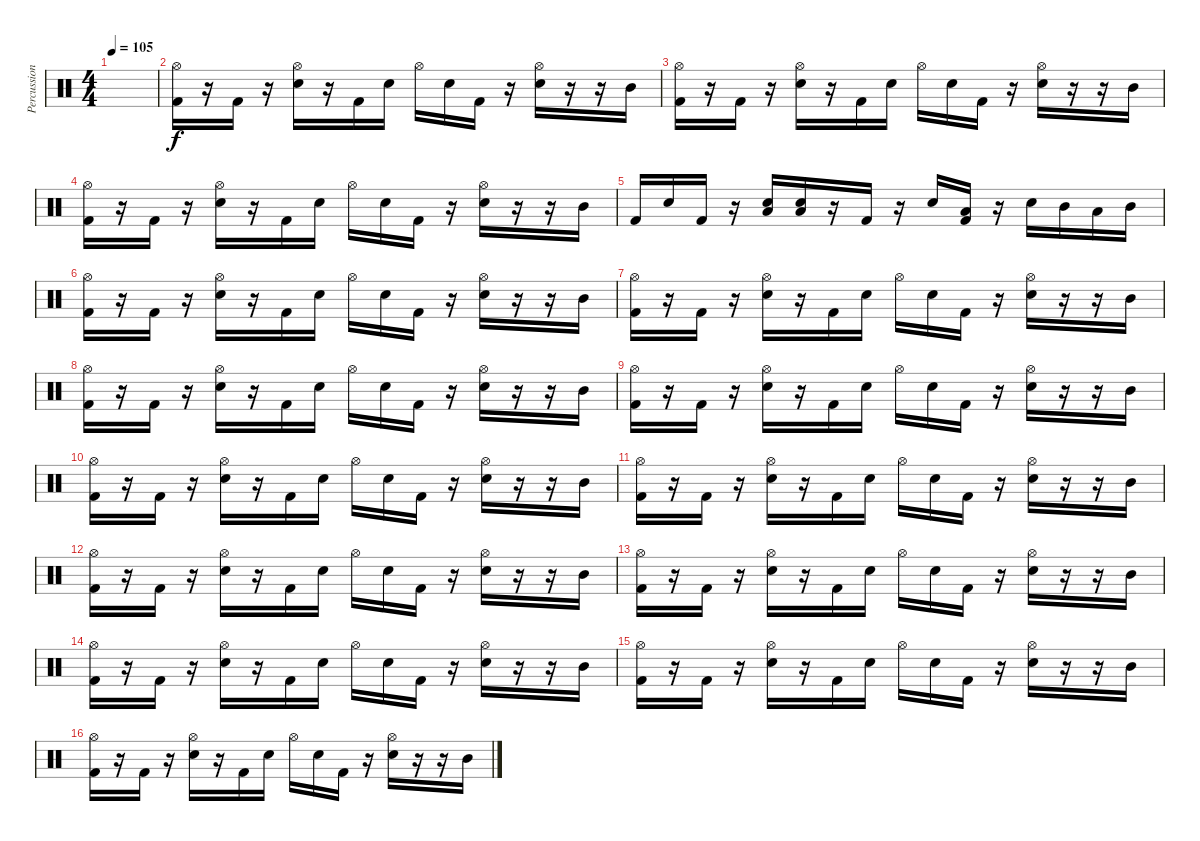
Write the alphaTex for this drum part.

\track ("Percussion" "Percussion") {instrument percussion}
\staff {score}
\articulation defaults
\ts (4 4)
\tempo 105
\clef neutral
\ks c
|
("Hi-Hat (open)" "Kick (hit) 2").16 r.16 "Kick (hit) 2".16 r.16 ("Hi-Hat (open)" "Snare (hit) 2").16 r.16 "Kick (hit) 2".16 "Snare (hit) 2".16 "Hi-Hat (open)".16 "Snare (hit) 2".16 "Kick (hit) 2".16 r.16 ("Hi-Hat (open)" "Snare (hit) 2").16 r.16 r.16 "Mid Tom (hit)".16 |
("Hi-Hat (open)" "Kick (hit) 2").16 r.16 "Kick (hit) 2".16 r.16 ("Hi-Hat (open)" "Snare (hit) 2").16 r.16 "Kick (hit) 2".16 "Snare (hit) 2".16 "Hi-Hat (open)".16 "Snare (hit) 2".16 "Kick (hit) 2".16 r.16 ("Hi-Hat (open)" "Snare (hit) 2").16 r.16 r.16 "Mid Tom (hit)".16 |
("Hi-Hat (open)" "Kick (hit) 2").16 r.16 "Kick (hit) 2".16 r.16 ("Hi-Hat (open)" "Snare (hit) 2").16 r.16 "Kick (hit) 2".16 "Snare (hit) 2".16 "Hi-Hat (open)".16 "Snare (hit) 2".16 "Kick (hit) 2".16 r.16 ("Hi-Hat (open)" "Snare (hit) 2").16 r.16 r.16 "Mid Tom (hit)".16 |
"Kick (hit) 2".16 "Snare (hit) 2".16 "Kick (hit) 2".16 r.16 ("Low Tom (hit)" "Snare (hit) 2").16 ("Low Tom (hit)" "Snare (hit) 2").16 r.16 "Kick (hit) 2".16 r.16 "Snare (hit) 2".16 ("Low Tom (hit)" "Kick (hit) 2").16 r.16 "Snare (hit) 2".16 "Mid Tom (hit)".16 "Low Tom (hit)".16 "Mid Tom (hit)".16 |
("Hi-Hat (open)" "Kick (hit) 2").16 r.16 "Kick (hit) 2".16 r.16 ("Hi-Hat (open)" "Snare (hit) 2").16 r.16 "Kick (hit) 2".16 "Snare (hit) 2".16 "Hi-Hat (open)".16 "Snare (hit) 2".16 "Kick (hit) 2".16 r.16 ("Hi-Hat (open)" "Snare (hit) 2").16 r.16 r.16 "Mid Tom (hit)".16 |
("Hi-Hat (open)" "Kick (hit) 2").16 r.16 "Kick (hit) 2".16 r.16 ("Hi-Hat (open)" "Snare (hit) 2").16 r.16 "Kick (hit) 2".16 "Snare (hit) 2".16 "Hi-Hat (open)".16 "Snare (hit) 2".16 "Kick (hit) 2".16 r.16 ("Hi-Hat (open)" "Snare (hit) 2").16 r.16 r.16 "Mid Tom (hit)".16 |
("Hi-Hat (open)" "Kick (hit) 2").16 r.16 "Kick (hit) 2".16 r.16 ("Hi-Hat (open)" "Snare (hit) 2").16 r.16 "Kick (hit) 2".16 "Snare (hit) 2".16 "Hi-Hat (open)".16 "Snare (hit) 2".16 "Kick (hit) 2".16 r.16 ("Hi-Hat (open)" "Snare (hit) 2").16 r.16 r.16 "Mid Tom (hit)".16 |
("Hi-Hat (open)" "Kick (hit) 2").16 r.16 "Kick (hit) 2".16 r.16 ("Hi-Hat (open)" "Snare (hit) 2").16 r.16 "Kick (hit) 2".16 "Snare (hit) 2".16 "Hi-Hat (open)".16 "Snare (hit) 2".16 "Kick (hit) 2".16 r.16 ("Hi-Hat (open)" "Snare (hit) 2").16 r.16 r.16 "Mid Tom (hit)".16 |
("Hi-Hat (open)" "Kick (hit) 2").16 r.16 "Kick (hit) 2".16 r.16 ("Hi-Hat (open)" "Snare (hit) 2").16 r.16 "Kick (hit) 2".16 "Snare (hit) 2".16 "Hi-Hat (open)".16 "Snare (hit) 2".16 "Kick (hit) 2".16 r.16 ("Hi-Hat (open)" "Snare (hit) 2").16 r.16 r.16 "Mid Tom (hit)".16 |
("Hi-Hat (open)" "Kick (hit) 2").16 r.16 "Kick (hit) 2".16 r.16 ("Hi-Hat (open)" "Snare (hit) 2").16 r.16 "Kick (hit) 2".16 "Snare (hit) 2".16 "Hi-Hat (open)".16 "Snare (hit) 2".16 "Kick (hit) 2".16 r.16 ("Hi-Hat (open)" "Snare (hit) 2").16 r.16 r.16 "Mid Tom (hit)".16 |
("Hi-Hat (open)" "Kick (hit) 2").16 r.16 "Kick (hit) 2".16 r.16 ("Hi-Hat (open)" "Snare (hit) 2").16 r.16 "Kick (hit) 2".16 "Snare (hit) 2".16 "Hi-Hat (open)".16 "Snare (hit) 2".16 "Kick (hit) 2".16 r.16 ("Hi-Hat (open)" "Snare (hit) 2").16 r.16 r.16 "Mid Tom (hit)".16 |
("Hi-Hat (open)" "Kick (hit) 2").16 r.16 "Kick (hit) 2".16 r.16 ("Hi-Hat (open)" "Snare (hit) 2").16 r.16 "Kick (hit) 2".16 "Snare (hit) 2".16 "Hi-Hat (open)".16 "Snare (hit) 2".16 "Kick (hit) 2".16 r.16 ("Hi-Hat (open)" "Snare (hit) 2").16 r.16 r.16 "Mid Tom (hit)".16 |
("Hi-Hat (open)" "Kick (hit) 2").16 r.16 "Kick (hit) 2".16 r.16 ("Hi-Hat (open)" "Snare (hit) 2").16 r.16 "Kick (hit) 2".16 "Snare (hit) 2".16 "Hi-Hat (open)".16 "Snare (hit) 2".16 "Kick (hit) 2".16 r.16 ("Hi-Hat (open)" "Snare (hit) 2").16 r.16 r.16 "Mid Tom (hit)".16 |
("Hi-Hat (open)" "Kick (hit) 2").16 r.16 "Kick (hit) 2".16 r.16 ("Hi-Hat (open)" "Snare (hit) 2").16 r.16 "Kick (hit) 2".16 "Snare (hit) 2".16 "Hi-Hat (open)".16 "Snare (hit) 2".16 "Kick (hit) 2".16 r.16 ("Hi-Hat (open)" "Snare (hit) 2").16 r.16 r.16 "Mid Tom (hit)".16 |
("Hi-Hat (open)" "Kick (hit) 2").16 r.16 "Kick (hit) 2".16 r.16 ("Hi-Hat (open)" "Snare (hit) 2").16 r.16 "Kick (hit) 2".16 "Snare (hit) 2".16 "Hi-Hat (open)".16 "Snare (hit) 2".16 "Kick (hit) 2".16 r.16 ("Hi-Hat (open)" "Snare (hit) 2").16 r.16 r.16 "Mid Tom (hit)".16
